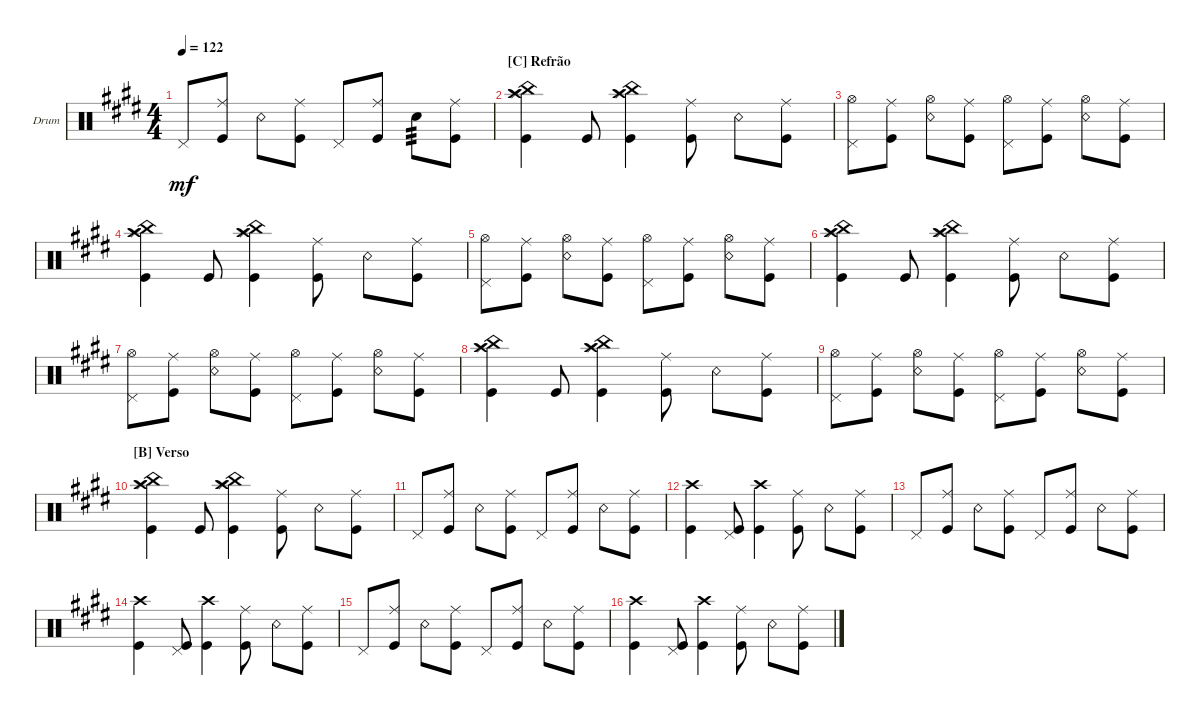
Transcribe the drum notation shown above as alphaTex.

\defaultSystemsLayout 4
\bracketExtendMode groupsimilarinstruments
\firstSystemTrackNameOrientation horizontal
\otherSystemsTrackNameOrientation horizontal
\track ("Bateria" "Drum") {multiBarRest instrument percussion}
\staff {score}
\articulation defaults
\ts (4 4)
\tempo 122
\clef neutral
\ks e "Pedal Hi-Hat (hit)".8{dy mf}
("Kick (hit)" "Ride (middle)").8 "Snare (rim shot)".8 ("Kick (hit)" "Ride (middle)").8 "Pedal Hi-Hat (hit)".8 ("Kick (hit)" "Ride (middle)").8 "Snare (hit) 2".8{tp 3} ("Kick (hit)" "Ride (middle)").8 |
\section ("C" "Refrão")
("Kick (hit)" "Crash high (hit)" "China (hit)" "Splash (hit)").4 "Kick (hit)".8 ("Kick (hit)" "Crash high (hit)" "China (hit)" "Splash (hit)").4 ("Kick (hit)" "Ride (middle)").8 "Snare (rim shot)".8 ("Kick (hit)" "Ride (middle)").8 |
("Pedal Hi-Hat (hit)" "Hi-Hat (open)").8 ("Kick (hit)" "Ride (middle)").8 ("Snare (rim shot)" "Hi-Hat (open)").8 ("Kick (hit)" "Ride (middle)").8 ("Pedal Hi-Hat (hit)" "Hi-Hat (open)").8 ("Kick (hit)" "Ride (middle)").8 ("Snare (rim shot)" "Hi-Hat (open)").8 ("Kick (hit)" "Ride (middle)").8 |
("Kick (hit)" "Crash high (hit)" "China (hit)" "Splash (hit)").4 "Kick (hit)".8 ("Kick (hit)" "Crash high (hit)" "China (hit)" "Splash (hit)").4 ("Kick (hit)" "Ride (middle)").8 "Snare (rim shot)".8 ("Kick (hit)" "Ride (middle)").8 |
("Pedal Hi-Hat (hit)" "Hi-Hat (open)").8 ("Kick (hit)" "Ride (middle)").8 ("Snare (rim shot)" "Hi-Hat (open)").8 ("Kick (hit)" "Ride (middle)").8 ("Pedal Hi-Hat (hit)" "Hi-Hat (open)").8 ("Kick (hit)" "Ride (middle)").8 ("Snare (rim shot)" "Hi-Hat (open)").8 ("Kick (hit)" "Ride (middle)").8 |
("Kick (hit)" "Crash high (hit)" "China (hit)" "Splash (hit)").4 "Kick (hit)".8 ("Kick (hit)" "Crash high (hit)" "China (hit)" "Splash (hit)").4 ("Kick (hit)" "Ride (middle)").8 "Snare (rim shot)".8 ("Kick (hit)" "Ride (middle)").8 |
("Pedal Hi-Hat (hit)" "Hi-Hat (open)").8 ("Kick (hit)" "Ride (middle)").8 ("Snare (rim shot)" "Hi-Hat (open)").8 ("Kick (hit)" "Ride (middle)").8 ("Pedal Hi-Hat (hit)" "Hi-Hat (open)").8 ("Kick (hit)" "Ride (middle)").8 ("Snare (rim shot)" "Hi-Hat (open)").8 ("Kick (hit)" "Ride (middle)").8 |
("Kick (hit)" "Crash high (hit)" "China (hit)" "Splash (hit)").4 "Kick (hit)".8 ("Kick (hit)" "Crash high (hit)" "China (hit)" "Splash (hit)").4 ("Kick (hit)" "Ride (middle)").8 "Snare (rim shot)".8 ("Kick (hit)" "Ride (middle)").8 |
("Pedal Hi-Hat (hit)" "Hi-Hat (open)").8 ("Kick (hit)" "Ride (middle)").8 ("Snare (rim shot)" "Hi-Hat (open)").8 ("Kick (hit)" "Ride (middle)").8 ("Pedal Hi-Hat (hit)" "Hi-Hat (open)").8 ("Kick (hit)" "Ride (middle)").8 ("Snare (rim shot)" "Hi-Hat (open)").8 ("Kick (hit)" "Ride (middle)").8 |
\section ("B" "Verso")
("Kick (hit)" "Crash high (hit)" "China (hit)" "Splash (hit)").4 "Kick (hit)".8 ("Kick (hit)" "Crash high (hit)" "China (hit)" "Splash (hit)").4 ("Kick (hit)" "Ride (middle)").8 "Snare (rim shot)".8 ("Kick (hit)" "Ride (middle)").8 |
"Pedal Hi-Hat (hit)".8 ("Kick (hit)" "Ride (middle)").8 "Snare (rim shot)".8 ("Kick (hit)" "Ride (middle)").8 "Pedal Hi-Hat (hit)".8 ("Kick (hit)" "Ride (middle)").8 "Snare (rim shot)".8 ("Kick (hit)" "Ride (middle)").8 |
("Kick (hit)" "Crash high (hit)").4 ("Kick (hit)" "Pedal Hi-Hat (hit)").8 ("Kick (hit)" "Crash high (hit)").4 ("Kick (hit)" "Ride (middle)").8 "Snare (rim shot)".8 ("Kick (hit)" "Ride (middle)").8 |
"Pedal Hi-Hat (hit)".8 ("Kick (hit)" "Ride (middle)").8 "Snare (rim shot)".8 ("Kick (hit)" "Ride (middle)").8 "Pedal Hi-Hat (hit)".8 ("Kick (hit)" "Ride (middle)").8 "Snare (rim shot)".8 ("Kick (hit)" "Ride (middle)").8 |
("Kick (hit)" "Crash high (hit)").4 ("Kick (hit)" "Pedal Hi-Hat (hit)").8 ("Kick (hit)" "Crash high (hit)").4 ("Kick (hit)" "Ride (middle)").8 "Snare (rim shot)".8 ("Kick (hit)" "Ride (middle)").8 |
"Pedal Hi-Hat (hit)".8 ("Kick (hit)" "Ride (middle)").8 "Snare (rim shot)".8 ("Kick (hit)" "Ride (middle)").8 "Pedal Hi-Hat (hit)".8 ("Kick (hit)" "Ride (middle)").8 "Snare (rim shot)".8 ("Kick (hit)" "Ride (middle)").8 |
("Kick (hit)" "Crash high (hit)").4 ("Kick (hit)" "Pedal Hi-Hat (hit)").8 ("Kick (hit)" "Crash high (hit)").4 ("Kick (hit)" "Ride (middle)").8 "Snare (rim shot)".8 ("Kick (hit)" "Ride (middle)").8
